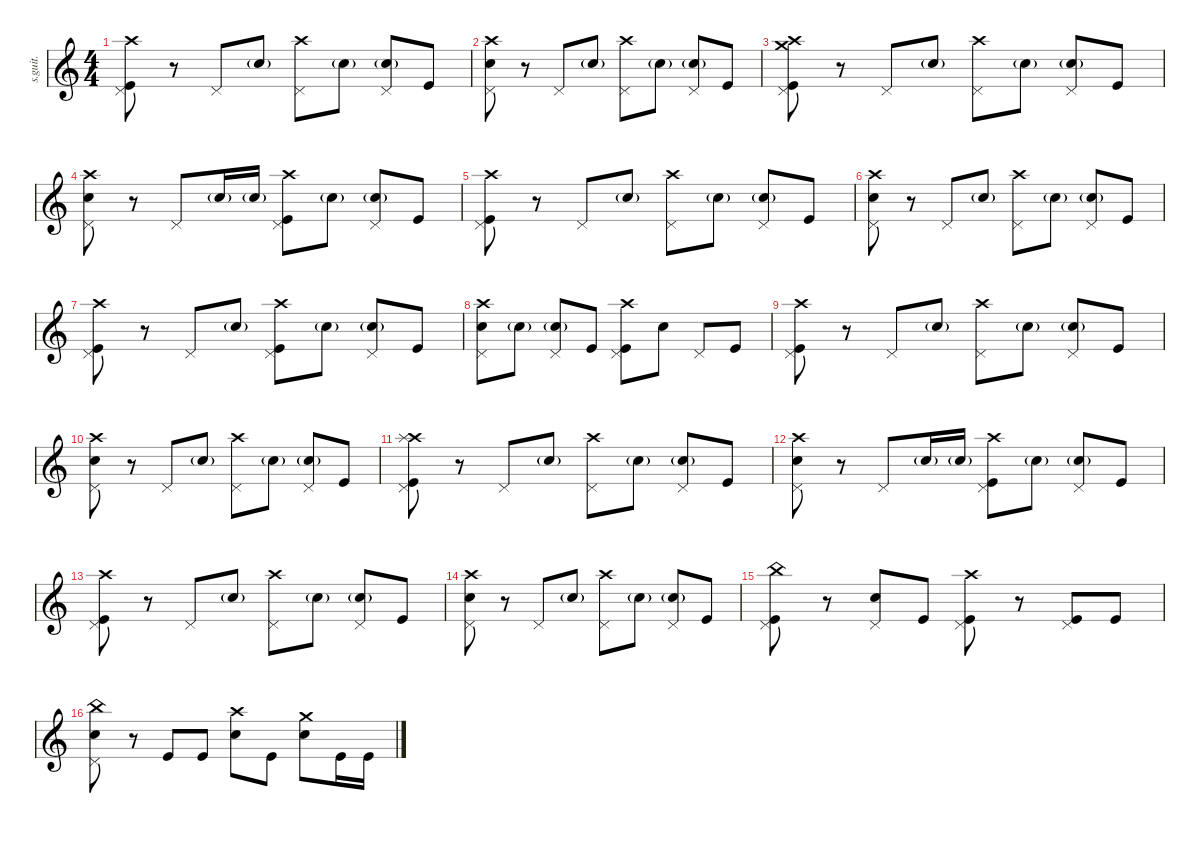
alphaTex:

\defaultSystemsLayout 4
\hideDynamics
\bracketExtendMode nobrackets
\track ("Matt Halpern" "s.guit.") {instrument percussion}
\staff {score}
\articulation defaults
\ts (4 4)
\tempo (213 hide)
\clef g2
\ks c
("Crash high (hit)" "Pedal Hi-Hat (hit)" "Kick (hit)").8{lyrics (0 "") lyrics (1 "") lyrics (2 "") lyrics (3 "") lyrics (4 "") dy mf} r.8 "Pedal Hi-Hat (hit)".8{lyrics (0 "") lyrics (1 "") lyrics (2 "") lyrics (3 "") lyrics (4 "")} "Snare (hit) 2"{g}.8{lyrics (0 "") lyrics (1 "") lyrics (2 "") lyrics (3 "") lyrics (4 "")} ("Crash high (hit)" "Pedal Hi-Hat (hit)").8{lyrics (0 "") lyrics (1 "") lyrics (2 "") lyrics (3 "") lyrics (4 "")} "Snare (hit) 2"{g}.8{lyrics (0 "") lyrics (1 "") lyrics (2 "") lyrics (3 "") lyrics (4 "")} ("Pedal Hi-Hat (hit)" "Snare (hit) 2"{g}).8{lyrics (0 "") lyrics (1 "") lyrics (2 "") lyrics (3 "") lyrics (4 "")} "Kick (hit)".8{lyrics (0 "") lyrics (1 "") lyrics (2 "") lyrics (3 "") lyrics (4 "")} |
("Crash high (hit)" "Pedal Hi-Hat (hit)" "Snare (hit) 2").8{lyrics (0 "") lyrics (1 "") lyrics (2 "") lyrics (3 "") lyrics (4 "")} r.8 "Pedal Hi-Hat (hit)".8{lyrics (0 "") lyrics (1 "") lyrics (2 "") lyrics (3 "") lyrics (4 "")} "Snare (hit) 2"{g}.8{lyrics (0 "") lyrics (1 "") lyrics (2 "") lyrics (3 "") lyrics (4 "")} ("Crash high (hit)" "Pedal Hi-Hat (hit)").8{lyrics (0 "") lyrics (1 "") lyrics (2 "") lyrics (3 "") lyrics (4 "")} "Snare (hit) 2"{g}.8{lyrics (0 "") lyrics (1 "") lyrics (2 "") lyrics (3 "") lyrics (4 "")} ("Pedal Hi-Hat (hit)" "Snare (hit) 2"{g}).8{lyrics (0 "") lyrics (1 "") lyrics (2 "") lyrics (3 "") lyrics (4 "")} "Kick (hit)".8{lyrics (0 "") lyrics (1 "") lyrics (2 "") lyrics (3 "") lyrics (4 "")} |
("Crash high (hit)" "Crash medium (hit)" "Pedal Hi-Hat (hit)" "Kick (hit)").8{lyrics (0 "") lyrics (1 "") lyrics (2 "") lyrics (3 "") lyrics (4 "")} r.8 "Pedal Hi-Hat (hit)".8{lyrics (0 "") lyrics (1 "") lyrics (2 "") lyrics (3 "") lyrics (4 "")} "Snare (hit) 2"{g}.8{lyrics (0 "") lyrics (1 "") lyrics (2 "") lyrics (3 "") lyrics (4 "")} ("Crash high (hit)" "Pedal Hi-Hat (hit)").8{lyrics (0 "") lyrics (1 "") lyrics (2 "") lyrics (3 "") lyrics (4 "")} "Snare (hit) 2"{g}.8{lyrics (0 "") lyrics (1 "") lyrics (2 "") lyrics (3 "") lyrics (4 "")} ("Pedal Hi-Hat (hit)" "Snare (hit) 2"{g}).8{lyrics (0 "") lyrics (1 "") lyrics (2 "") lyrics (3 "") lyrics (4 "")} "Kick (hit)".8{lyrics (0 "") lyrics (1 "") lyrics (2 "") lyrics (3 "") lyrics (4 "")} |
("Crash high (hit)" "Pedal Hi-Hat (hit)" "Snare (hit) 2").8{lyrics (0 "") lyrics (1 "") lyrics (2 "") lyrics (3 "") lyrics (4 "")} r.8 "Pedal Hi-Hat (hit)".8{lyrics (0 "") lyrics (1 "") lyrics (2 "") lyrics (3 "") lyrics (4 "")} "Snare (hit) 2"{g}.16{lyrics (0 "") lyrics (1 "") lyrics (2 "") lyrics (3 "") lyrics (4 "")} "Snare (hit) 2"{g}.16{lyrics (0 "") lyrics (1 "") lyrics (2 "") lyrics (3 "") lyrics (4 "")} ("Crash high (hit)" "Pedal Hi-Hat (hit)" "Kick (hit)").8{lyrics (0 "") lyrics (1 "") lyrics (2 "") lyrics (3 "") lyrics (4 "")} "Snare (hit) 2"{g}.8{lyrics (0 "") lyrics (1 "") lyrics (2 "") lyrics (3 "") lyrics (4 "")} ("Pedal Hi-Hat (hit)" "Snare (hit) 2"{g}).8{lyrics (0 "") lyrics (1 "") lyrics (2 "") lyrics (3 "") lyrics (4 "")} "Kick (hit)".8{lyrics (0 "") lyrics (1 "") lyrics (2 "") lyrics (3 "") lyrics (4 "")} |
("Crash high (hit)" "Pedal Hi-Hat (hit)" "Kick (hit)").8{lyrics (0 "") lyrics (1 "") lyrics (2 "") lyrics (3 "") lyrics (4 "")} r.8 "Pedal Hi-Hat (hit)".8{lyrics (0 "") lyrics (1 "") lyrics (2 "") lyrics (3 "") lyrics (4 "")} "Snare (hit) 2"{g}.8{lyrics (0 "") lyrics (1 "") lyrics (2 "") lyrics (3 "") lyrics (4 "")} ("Crash high (hit)" "Pedal Hi-Hat (hit)").8{lyrics (0 "") lyrics (1 "") lyrics (2 "") lyrics (3 "") lyrics (4 "")} "Snare (hit) 2"{g}.8{lyrics (0 "") lyrics (1 "") lyrics (2 "") lyrics (3 "") lyrics (4 "")} ("Pedal Hi-Hat (hit)" "Snare (hit) 2"{g}).8{lyrics (0 "") lyrics (1 "") lyrics (2 "") lyrics (3 "") lyrics (4 "")} "Kick (hit)".8{lyrics (0 "") lyrics (1 "") lyrics (2 "") lyrics (3 "") lyrics (4 "")} |
("Crash high (hit)" "Pedal Hi-Hat (hit)" "Snare (hit) 2").8{lyrics (0 "") lyrics (1 "") lyrics (2 "") lyrics (3 "") lyrics (4 "")} r.8 "Pedal Hi-Hat (hit)".8{lyrics (0 "") lyrics (1 "") lyrics (2 "") lyrics (3 "") lyrics (4 "")} "Snare (hit) 2"{g}.8{lyrics (0 "") lyrics (1 "") lyrics (2 "") lyrics (3 "") lyrics (4 "")} ("Crash high (hit)" "Pedal Hi-Hat (hit)").8{lyrics (0 "") lyrics (1 "") lyrics (2 "") lyrics (3 "") lyrics (4 "")} "Snare (hit) 2"{g}.8{lyrics (0 "") lyrics (1 "") lyrics (2 "") lyrics (3 "") lyrics (4 "")} ("Pedal Hi-Hat (hit)" "Snare (hit) 2"{g}).8{lyrics (0 "") lyrics (1 "") lyrics (2 "") lyrics (3 "") lyrics (4 "")} "Kick (hit)".8{lyrics (0 "") lyrics (1 "") lyrics (2 "") lyrics (3 "") lyrics (4 "")} |
("Crash high (hit)" "Pedal Hi-Hat (hit)" "Kick (hit)").8{lyrics (0 "") lyrics (1 "") lyrics (2 "") lyrics (3 "") lyrics (4 "")} r.8 "Pedal Hi-Hat (hit)".8{lyrics (0 "") lyrics (1 "") lyrics (2 "") lyrics (3 "") lyrics (4 "")} "Snare (hit) 2"{g}.8{lyrics (0 "") lyrics (1 "") lyrics (2 "") lyrics (3 "") lyrics (4 "")} ("Crash high (hit)" "Pedal Hi-Hat (hit)" "Kick (hit)").8{lyrics (0 "") lyrics (1 "") lyrics (2 "") lyrics (3 "") lyrics (4 "")} "Snare (hit) 2"{g}.8{lyrics (0 "") lyrics (1 "") lyrics (2 "") lyrics (3 "") lyrics (4 "")} ("Pedal Hi-Hat (hit)" "Snare (hit) 2"{g}).8{lyrics (0 "") lyrics (1 "") lyrics (2 "") lyrics (3 "") lyrics (4 "")} "Kick (hit)".8{lyrics (0 "") lyrics (1 "") lyrics (2 "") lyrics (3 "") lyrics (4 "")} |
("Crash high (hit)" "Pedal Hi-Hat (hit)" "Snare (hit) 2").8{lyrics (0 "") lyrics (1 "") lyrics (2 "") lyrics (3 "") lyrics (4 "")} "Snare (hit) 2"{g}.8{lyrics (0 "") lyrics (1 "") lyrics (2 "") lyrics (3 "") lyrics (4 "")} ("Pedal Hi-Hat (hit)" "Snare (hit) 2"{g}).8{lyrics (0 "") lyrics (1 "") lyrics (2 "") lyrics (3 "") lyrics (4 "")} "Kick (hit)".8{lyrics (0 "") lyrics (1 "") lyrics (2 "") lyrics (3 "") lyrics (4 "")} ("Crash high (hit)" "Pedal Hi-Hat (hit)" "Kick (hit)").8{lyrics (0 "") lyrics (1 "") lyrics (2 "") lyrics (3 "") lyrics (4 "")} "Snare (hit) 2".8{lyrics (0 "") lyrics (1 "") lyrics (2 "") lyrics (3 "") lyrics (4 "")} "Pedal Hi-Hat (hit)".8{lyrics (0 "") lyrics (1 "") lyrics (2 "") lyrics (3 "") lyrics (4 "")} "Kick (hit)".8{lyrics (0 "") lyrics (1 "") lyrics (2 "") lyrics (3 "") lyrics (4 "")} |
("Crash high (hit)" "Pedal Hi-Hat (hit)" "Kick (hit)").8{lyrics (0 "") lyrics (1 "") lyrics (2 "") lyrics (3 "") lyrics (4 "")} r.8 "Pedal Hi-Hat (hit)".8{lyrics (0 "") lyrics (1 "") lyrics (2 "") lyrics (3 "") lyrics (4 "")} "Snare (hit) 2"{g}.8{lyrics (0 "") lyrics (1 "") lyrics (2 "") lyrics (3 "") lyrics (4 "")} ("Crash high (hit)" "Pedal Hi-Hat (hit)").8{lyrics (0 "") lyrics (1 "") lyrics (2 "") lyrics (3 "") lyrics (4 "")} "Snare (hit) 2"{g}.8{lyrics (0 "") lyrics (1 "") lyrics (2 "") lyrics (3 "") lyrics (4 "")} ("Pedal Hi-Hat (hit)" "Snare (hit) 2"{g}).8{lyrics (0 "") lyrics (1 "") lyrics (2 "") lyrics (3 "") lyrics (4 "")} "Kick (hit)".8{lyrics (0 "") lyrics (1 "") lyrics (2 "") lyrics (3 "") lyrics (4 "")} |
("Crash high (hit)" "Pedal Hi-Hat (hit)" "Snare (hit) 2").8{lyrics (0 "") lyrics (1 "") lyrics (2 "") lyrics (3 "") lyrics (4 "")} r.8 "Pedal Hi-Hat (hit)".8{lyrics (0 "") lyrics (1 "") lyrics (2 "") lyrics (3 "") lyrics (4 "")} "Snare (hit) 2"{g}.8{lyrics (0 "") lyrics (1 "") lyrics (2 "") lyrics (3 "") lyrics (4 "")} ("Crash high (hit)" "Pedal Hi-Hat (hit)").8{lyrics (0 "") lyrics (1 "") lyrics (2 "") lyrics (3 "") lyrics (4 "")} "Snare (hit) 2"{g}.8{lyrics (0 "") lyrics (1 "") lyrics (2 "") lyrics (3 "") lyrics (4 "")} ("Pedal Hi-Hat (hit)" "Snare (hit) 2"{g}).8{lyrics (0 "") lyrics (1 "") lyrics (2 "") lyrics (3 "") lyrics (4 "")} "Kick (hit)".8{lyrics (0 "") lyrics (1 "") lyrics (2 "") lyrics (3 "") lyrics (4 "")} |
("Crash high (hit)" "Splash (hit)" "Pedal Hi-Hat (hit)" "Kick (hit)").8{lyrics (0 "") lyrics (1 "") lyrics (2 "") lyrics (3 "") lyrics (4 "")} r.8 "Pedal Hi-Hat (hit)".8{lyrics (0 "") lyrics (1 "") lyrics (2 "") lyrics (3 "") lyrics (4 "")} "Snare (hit) 2"{g}.8{lyrics (0 "") lyrics (1 "") lyrics (2 "") lyrics (3 "") lyrics (4 "")} ("Crash high (hit)" "Pedal Hi-Hat (hit)").8{lyrics (0 "") lyrics (1 "") lyrics (2 "") lyrics (3 "") lyrics (4 "")} "Snare (hit) 2"{g}.8{lyrics (0 "") lyrics (1 "") lyrics (2 "") lyrics (3 "") lyrics (4 "")} ("Pedal Hi-Hat (hit)" "Snare (hit) 2"{g}).8{lyrics (0 "") lyrics (1 "") lyrics (2 "") lyrics (3 "") lyrics (4 "")} "Kick (hit)".8{lyrics (0 "") lyrics (1 "") lyrics (2 "") lyrics (3 "") lyrics (4 "")} |
("Crash high (hit)" "Pedal Hi-Hat (hit)" "Snare (hit) 2").8{lyrics (0 "") lyrics (1 "") lyrics (2 "") lyrics (3 "") lyrics (4 "")} r.8 "Pedal Hi-Hat (hit)".8{lyrics (0 "") lyrics (1 "") lyrics (2 "") lyrics (3 "") lyrics (4 "")} "Snare (hit) 2"{g}.16{lyrics (0 "") lyrics (1 "") lyrics (2 "") lyrics (3 "") lyrics (4 "")} "Snare (hit) 2"{g}.16{lyrics (0 "") lyrics (1 "") lyrics (2 "") lyrics (3 "") lyrics (4 "")} ("Crash high (hit)" "Pedal Hi-Hat (hit)" "Kick (hit)").8{lyrics (0 "") lyrics (1 "") lyrics (2 "") lyrics (3 "") lyrics (4 "")} "Snare (hit) 2"{g}.8{lyrics (0 "") lyrics (1 "") lyrics (2 "") lyrics (3 "") lyrics (4 "")} ("Pedal Hi-Hat (hit)" "Snare (hit) 2"{g}).8{lyrics (0 "") lyrics (1 "") lyrics (2 "") lyrics (3 "") lyrics (4 "")} "Kick (hit)".8{lyrics (0 "") lyrics (1 "") lyrics (2 "") lyrics (3 "") lyrics (4 "")} |
("Crash high (hit)" "Pedal Hi-Hat (hit)" "Kick (hit)").8{lyrics (0 "") lyrics (1 "") lyrics (2 "") lyrics (3 "") lyrics (4 "")} r.8 "Pedal Hi-Hat (hit)".8{lyrics (0 "") lyrics (1 "") lyrics (2 "") lyrics (3 "") lyrics (4 "")} "Snare (hit) 2"{g}.8{lyrics (0 "") lyrics (1 "") lyrics (2 "") lyrics (3 "") lyrics (4 "")} ("Crash high (hit)" "Pedal Hi-Hat (hit)").8{lyrics (0 "") lyrics (1 "") lyrics (2 "") lyrics (3 "") lyrics (4 "")} "Snare (hit) 2"{g}.8{lyrics (0 "") lyrics (1 "") lyrics (2 "") lyrics (3 "") lyrics (4 "")} ("Pedal Hi-Hat (hit)" "Snare (hit) 2"{g}).8{lyrics (0 "") lyrics (1 "") lyrics (2 "") lyrics (3 "") lyrics (4 "")} "Kick (hit)".8{lyrics (0 "") lyrics (1 "") lyrics (2 "") lyrics (3 "") lyrics (4 "")} |
("Crash high (hit)" "Pedal Hi-Hat (hit)" "Snare (hit) 2").8{lyrics (0 "") lyrics (1 "") lyrics (2 "") lyrics (3 "") lyrics (4 "")} r.8 "Pedal Hi-Hat (hit)".8{lyrics (0 "") lyrics (1 "") lyrics (2 "") lyrics (3 "") lyrics (4 "")} "Snare (hit) 2"{g}.8{lyrics (0 "") lyrics (1 "") lyrics (2 "") lyrics (3 "") lyrics (4 "")} ("Crash high (hit)" "Pedal Hi-Hat (hit)").8{lyrics (0 "") lyrics (1 "") lyrics (2 "") lyrics (3 "") lyrics (4 "")} "Snare (hit) 2"{g}.8{lyrics (0 "") lyrics (1 "") lyrics (2 "") lyrics (3 "") lyrics (4 "")} ("Pedal Hi-Hat (hit)" "Snare (hit) 2"{g}).8{lyrics (0 "") lyrics (1 "") lyrics (2 "") lyrics (3 "") lyrics (4 "")} "Kick (hit)".8{lyrics (0 "") lyrics (1 "") lyrics (2 "") lyrics (3 "") lyrics (4 "")} |
("China (hit)" "Pedal Hi-Hat (hit)" "Kick (hit)").8{lyrics (0 "") lyrics (1 "") lyrics (2 "") lyrics (3 "") lyrics (4 "")} r.8 ("Pedal Hi-Hat (hit)" "Snare (hit) 2").8{lyrics (0 "") lyrics (1 "") lyrics (2 "") lyrics (3 "") lyrics (4 "")} "Kick (hit)".8{lyrics (0 "") lyrics (1 "") lyrics (2 "") lyrics (3 "") lyrics (4 "")} ("Crash high (hit)" "Pedal Hi-Hat (hit)" "Kick (hit)").8{lyrics (0 "") lyrics (1 "") lyrics (2 "") lyrics (3 "") lyrics (4 "")} r.8 ("Pedal Hi-Hat (hit)" "Kick (hit)").8{lyrics (0 "") lyrics (1 "") lyrics (2 "") lyrics (3 "") lyrics (4 "")} "Kick (hit)".8{lyrics (0 "") lyrics (1 "") lyrics (2 "") lyrics (3 "") lyrics (4 "")} |
("China (hit)" "Pedal Hi-Hat (hit)" "Snare (hit) 2").8{lyrics (0 "") lyrics (1 "") lyrics (2 "") lyrics (3 "") lyrics (4 "")} r.8 "Kick (hit)".8{lyrics (0 "") lyrics (1 "") lyrics (2 "") lyrics (3 "") lyrics (4 "")} "Kick (hit)".8{lyrics (0 "") lyrics (1 "") lyrics (2 "") lyrics (3 "") lyrics (4 "")} ("Crash high (hit)" "Snare (hit) 2").8{lyrics (0 "") lyrics (1 "") lyrics (2 "") lyrics (3 "") lyrics (4 "")} "Kick (hit)".8{lyrics (0 "") lyrics (1 "") lyrics (2 "") lyrics (3 "") lyrics (4 "")} ("Crash medium (hit)" "Snare (hit) 2").8{lyrics (0 "") lyrics (1 "") lyrics (2 "") lyrics (3 "") lyrics (4 "")} "Kick (hit)".16{lyrics (0 "") lyrics (1 "") lyrics (2 "") lyrics (3 "") lyrics (4 "")} "Kick (hit)".16{lyrics (0 "") lyrics (1 "") lyrics (2 "") lyrics (3 "") lyrics (4 "")}
